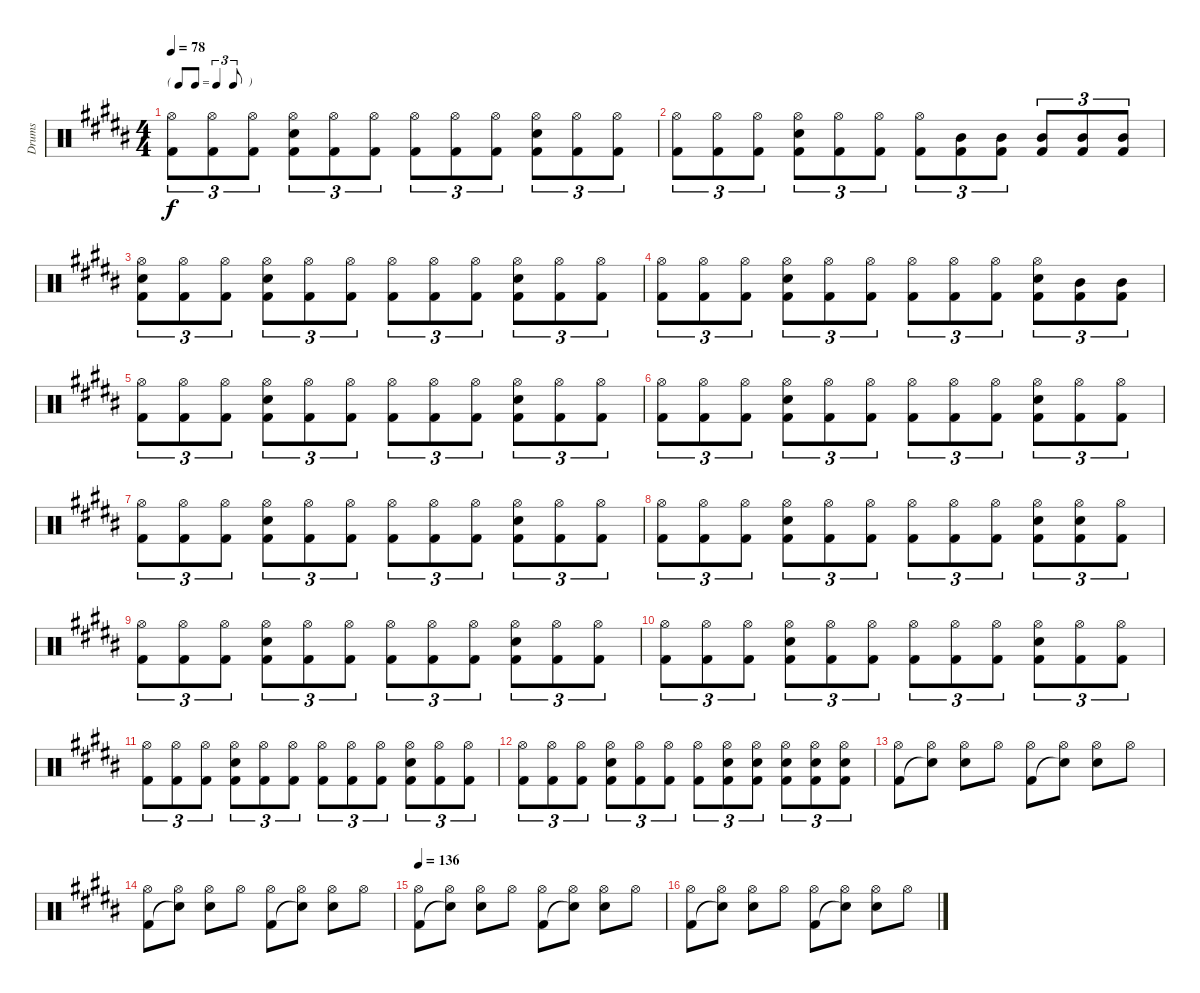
\track ("Drums" "Drums") {instrument percussion}
\staff {score}
\articulation defaults
\ts (4 4)
\tf triplet8th
\tempo 78
\clef neutral
\ks b
("Hi-Hat (open)" "Kick (hit) 2").8{tu (3 2) dy f} ("Hi-Hat (open)" "Kick (hit) 2").8{tu (3 2)} ("Hi-Hat (open)" "Kick (hit) 2").8{tu (3 2)} ("Hi-Hat (open)" "Snare (hit) 2" "Kick (hit) 2").8{tu (3 2)} ("Hi-Hat (open)" "Kick (hit) 2").8{tu (3 2)} ("Hi-Hat (open)" "Kick (hit) 2").8{tu (3 2)} ("Hi-Hat (open)" "Kick (hit) 2").8{tu (3 2)} ("Hi-Hat (open)" "Kick (hit) 2").8{tu (3 2)} ("Hi-Hat (open)" "Kick (hit) 2").8{tu (3 2)} ("Hi-Hat (open)" "Snare (hit) 2" "Kick (hit) 2").8{tu (3 2)} ("Hi-Hat (open)" "Kick (hit) 2").8{tu (3 2)} ("Hi-Hat (open)" "Kick (hit) 2").8{tu (3 2)} |
("Hi-Hat (open)" "Kick (hit) 2").8{tu (3 2)} ("Hi-Hat (open)" "Kick (hit) 2").8{tu (3 2)} ("Hi-Hat (open)" "Kick (hit) 2").8{tu (3 2)} ("Hi-Hat (open)" "Snare (hit) 2" "Kick (hit) 2").8{tu (3 2)} ("Hi-Hat (open)" "Kick (hit) 2").8{tu (3 2)} ("Hi-Hat (open)" "Kick (hit) 2").8{tu (3 2)} ("Hi-Hat (open)" "Kick (hit) 2").8{tu (3 2)} ("Mid Tom (hit)" "Kick (hit) 2").8{tu (3 2)} ("Mid Tom (hit)" "Kick (hit) 2").8{tu (3 2)} ("Mid Tom (hit)" "Kick (hit) 2").8{tu (3 2)} ("Mid Tom (hit)" "Kick (hit) 2").8{tu (3 2)} ("Mid Tom (hit)" "Kick (hit) 2").8{tu (3 2)} |
("Hi-Hat (open)" "Snare (hit) 2" "Kick (hit) 2").8{tu (3 2)} ("Hi-Hat (open)" "Kick (hit) 2").8{tu (3 2)} ("Hi-Hat (open)" "Kick (hit) 2").8{tu (3 2)} ("Hi-Hat (open)" "Snare (hit) 2" "Kick (hit) 2").8{tu (3 2)} ("Hi-Hat (open)" "Kick (hit) 2").8{tu (3 2)} ("Hi-Hat (open)" "Kick (hit) 2").8{tu (3 2)} ("Hi-Hat (open)" "Kick (hit) 2").8{tu (3 2)} ("Hi-Hat (open)" "Kick (hit) 2").8{tu (3 2)} ("Hi-Hat (open)" "Kick (hit) 2").8{tu (3 2)} ("Hi-Hat (open)" "Snare (hit) 2" "Kick (hit) 2").8{tu (3 2)} ("Hi-Hat (open)" "Kick (hit) 2").8{tu (3 2)} ("Hi-Hat (open)" "Kick (hit) 2").8{tu (3 2)} |
("Hi-Hat (open)" "Kick (hit) 2").8{tu (3 2)} ("Hi-Hat (open)" "Kick (hit) 2").8{tu (3 2)} ("Hi-Hat (open)" "Kick (hit) 2").8{tu (3 2)} ("Hi-Hat (open)" "Snare (hit) 2" "Kick (hit) 2").8{tu (3 2)} ("Hi-Hat (open)" "Kick (hit) 2").8{tu (3 2)} ("Hi-Hat (open)" "Kick (hit) 2").8{tu (3 2)} ("Hi-Hat (open)" "Kick (hit) 2").8{tu (3 2)} ("Hi-Hat (open)" "Kick (hit) 2").8{tu (3 2)} ("Hi-Hat (open)" "Kick (hit) 2").8{tu (3 2)} ("Hi-Hat (open)" "Snare (hit) 2" "Kick (hit) 2").8{tu (3 2)} ("Mid Tom (hit)" "Kick (hit) 2").8{tu (3 2)} ("Mid Tom (hit)" "Kick (hit) 2").8{tu (3 2)} |
("Hi-Hat (open)" "Kick (hit) 2").8{tu (3 2)} ("Hi-Hat (open)" "Kick (hit) 2").8{tu (3 2)} ("Hi-Hat (open)" "Kick (hit) 2").8{tu (3 2)} ("Hi-Hat (open)" "Snare (hit) 2" "Kick (hit) 2").8{tu (3 2)} ("Hi-Hat (open)" "Kick (hit) 2").8{tu (3 2)} ("Hi-Hat (open)" "Kick (hit) 2").8{tu (3 2)} ("Hi-Hat (open)" "Kick (hit) 2").8{tu (3 2)} ("Hi-Hat (open)" "Kick (hit) 2").8{tu (3 2)} ("Hi-Hat (open)" "Kick (hit) 2").8{tu (3 2)} ("Hi-Hat (open)" "Snare (hit) 2" "Kick (hit) 2").8{tu (3 2)} ("Hi-Hat (open)" "Kick (hit) 2").8{tu (3 2)} ("Hi-Hat (open)" "Kick (hit) 2").8{tu (3 2)} |
("Hi-Hat (open)" "Kick (hit) 2").8{tu (3 2)} ("Hi-Hat (open)" "Kick (hit) 2").8{tu (3 2)} ("Hi-Hat (open)" "Kick (hit) 2").8{tu (3 2)} ("Hi-Hat (open)" "Snare (hit) 2" "Kick (hit) 2").8{tu (3 2)} ("Hi-Hat (open)" "Kick (hit) 2").8{tu (3 2)} ("Hi-Hat (open)" "Kick (hit) 2").8{tu (3 2)} ("Hi-Hat (open)" "Kick (hit) 2").8{tu (3 2)} ("Hi-Hat (open)" "Kick (hit) 2").8{tu (3 2)} ("Hi-Hat (open)" "Kick (hit) 2").8{tu (3 2)} ("Hi-Hat (open)" "Snare (hit) 2" "Kick (hit) 2").8{tu (3 2)} ("Hi-Hat (open)" "Kick (hit) 2").8{tu (3 2)} ("Hi-Hat (open)" "Kick (hit) 2").8{tu (3 2)} |
("Hi-Hat (open)" "Kick (hit) 2").8{tu (3 2)} ("Hi-Hat (open)" "Kick (hit) 2").8{tu (3 2)} ("Hi-Hat (open)" "Kick (hit) 2").8{tu (3 2)} ("Hi-Hat (open)" "Snare (hit) 2" "Kick (hit) 2").8{tu (3 2)} ("Hi-Hat (open)" "Kick (hit) 2").8{tu (3 2)} ("Hi-Hat (open)" "Kick (hit) 2").8{tu (3 2)} ("Hi-Hat (open)" "Kick (hit) 2").8{tu (3 2)} ("Hi-Hat (open)" "Kick (hit) 2").8{tu (3 2)} ("Hi-Hat (open)" "Kick (hit) 2").8{tu (3 2)} ("Hi-Hat (open)" "Snare (hit) 2" "Kick (hit) 2").8{tu (3 2)} ("Hi-Hat (open)" "Kick (hit) 2").8{tu (3 2)} ("Hi-Hat (open)" "Kick (hit) 2").8{tu (3 2)} |
("Hi-Hat (open)" "Kick (hit) 2").8{tu (3 2)} ("Hi-Hat (open)" "Kick (hit) 2").8{tu (3 2)} ("Hi-Hat (open)" "Kick (hit) 2").8{tu (3 2)} ("Hi-Hat (open)" "Snare (hit) 2" "Kick (hit) 2").8{tu (3 2)} ("Hi-Hat (open)" "Kick (hit) 2").8{tu (3 2)} ("Hi-Hat (open)" "Kick (hit) 2").8{tu (3 2)} ("Hi-Hat (open)" "Kick (hit) 2").8{tu (3 2)} ("Hi-Hat (open)" "Kick (hit) 2").8{tu (3 2)} ("Hi-Hat (open)" "Kick (hit) 2").8{tu (3 2)} ("Hi-Hat (open)" "Snare (hit) 2" "Kick (hit) 2").8{tu (3 2)} ("Hi-Hat (open)" "Snare (hit) 2" "Kick (hit) 2").8{tu (3 2)} ("Hi-Hat (open)" "Kick (hit) 2").8{tu (3 2)} |
("Hi-Hat (open)" "Kick (hit) 2").8{tu (3 2)} ("Hi-Hat (open)" "Kick (hit) 2").8{tu (3 2)} ("Hi-Hat (open)" "Kick (hit) 2").8{tu (3 2)} ("Hi-Hat (open)" "Snare (hit) 2" "Kick (hit) 2").8{tu (3 2)} ("Hi-Hat (open)" "Kick (hit) 2").8{tu (3 2)} ("Hi-Hat (open)" "Kick (hit) 2").8{tu (3 2)} ("Hi-Hat (open)" "Kick (hit) 2").8{tu (3 2)} ("Hi-Hat (open)" "Kick (hit) 2").8{tu (3 2)} ("Hi-Hat (open)" "Kick (hit) 2").8{tu (3 2)} ("Hi-Hat (open)" "Snare (hit) 2" "Kick (hit) 2").8{tu (3 2)} ("Hi-Hat (open)" "Kick (hit) 2").8{tu (3 2)} ("Hi-Hat (open)" "Kick (hit) 2").8{tu (3 2)} |
("Hi-Hat (open)" "Kick (hit) 2").8{tu (3 2)} ("Hi-Hat (open)" "Kick (hit) 2").8{tu (3 2)} ("Hi-Hat (open)" "Kick (hit) 2").8{tu (3 2)} ("Hi-Hat (open)" "Snare (hit) 2" "Kick (hit) 2").8{tu (3 2)} ("Hi-Hat (open)" "Kick (hit) 2").8{tu (3 2)} ("Hi-Hat (open)" "Kick (hit) 2").8{tu (3 2)} ("Hi-Hat (open)" "Kick (hit) 2").8{tu (3 2)} ("Hi-Hat (open)" "Kick (hit) 2").8{tu (3 2)} ("Hi-Hat (open)" "Kick (hit) 2").8{tu (3 2)} ("Hi-Hat (open)" "Snare (hit) 2" "Kick (hit) 2").8{tu (3 2)} ("Hi-Hat (open)" "Kick (hit) 2").8{tu (3 2)} ("Hi-Hat (open)" "Kick (hit) 2").8{tu (3 2)} |
("Hi-Hat (open)" "Kick (hit) 2").8{tu (3 2)} ("Hi-Hat (open)" "Kick (hit) 2").8{tu (3 2)} ("Hi-Hat (open)" "Kick (hit) 2").8{tu (3 2)} ("Hi-Hat (open)" "Snare (hit) 2" "Kick (hit) 2").8{tu (3 2)} ("Hi-Hat (open)" "Kick (hit) 2").8{tu (3 2)} ("Hi-Hat (open)" "Kick (hit) 2").8{tu (3 2)} ("Hi-Hat (open)" "Kick (hit) 2").8{tu (3 2)} ("Hi-Hat (open)" "Kick (hit) 2").8{tu (3 2)} ("Hi-Hat (open)" "Kick (hit) 2").8{tu (3 2)} ("Hi-Hat (open)" "Snare (hit) 2" "Kick (hit) 2").8{tu (3 2)} ("Hi-Hat (open)" "Kick (hit) 2").8{tu (3 2)} ("Hi-Hat (open)" "Kick (hit) 2").8{tu (3 2)} |
("Hi-Hat (open)" "Kick (hit) 2").8{tu (3 2)} ("Hi-Hat (open)" "Kick (hit) 2").8{tu (3 2)} ("Hi-Hat (open)" "Kick (hit) 2").8{tu (3 2)} ("Hi-Hat (open)" "Snare (hit) 2" "Kick (hit) 2").8{tu (3 2)} ("Hi-Hat (open)" "Kick (hit) 2").8{tu (3 2)} ("Hi-Hat (open)" "Kick (hit) 2").8{tu (3 2)} ("Hi-Hat (open)" "Kick (hit) 2").8{tu (3 2)} ("Hi-Hat (open)" "Snare (hit) 2" "Kick (hit) 2").8{tu (3 2)} ("Hi-Hat (open)" "Snare (hit) 2" "Kick (hit) 2").8{tu (3 2)} ("Hi-Hat (open)" "Snare (hit) 2" "Kick (hit) 2").8{tu (3 2)} ("Hi-Hat (open)" "Snare (hit) 2" "Kick (hit) 2").8{tu (3 2)} ("Hi-Hat (open)" "Snare (hit) 2" "Kick (hit) 2").8{tu (3 2)} |
("Hi-Hat (open)" "Kick (hit) 2").8 ("Hi-Hat (open)" "Snare (hit)"{t}).8 ("Hi-Hat (open)" "Snare (hit) 2").8 "Hi-Hat (open)".8 ("Hi-Hat (open)" "Kick (hit) 2").8 ("Hi-Hat (open)" "Snare (hit)"{t}).8 ("Hi-Hat (open)" "Snare (hit) 2").8 "Hi-Hat (open)".8 |
("Hi-Hat (open)" "Kick (hit) 2").8 ("Hi-Hat (open)" "Snare (hit)"{t}).8 ("Hi-Hat (open)" "Snare (hit) 2").8 "Hi-Hat (open)".8 ("Hi-Hat (open)" "Kick (hit) 2").8 ("Hi-Hat (open)" "Snare (hit)"{t}).8 ("Hi-Hat (open)" "Snare (hit) 2").8 "Hi-Hat (open)".8 |
\tempo 136
("Hi-Hat (open)" "Kick (hit) 2").8 ("Hi-Hat (open)" "Snare (hit)"{t}).8 ("Hi-Hat (open)" "Snare (hit) 2").8 "Hi-Hat (open)".8 ("Hi-Hat (open)" "Kick (hit) 2").8 ("Hi-Hat (open)" "Snare (hit)"{t}).8 ("Hi-Hat (open)" "Snare (hit) 2").8 "Hi-Hat (open)".8 |
("Hi-Hat (open)" "Kick (hit) 2").8 ("Hi-Hat (open)" "Snare (hit)"{t}).8 ("Hi-Hat (open)" "Snare (hit) 2").8 "Hi-Hat (open)".8 ("Hi-Hat (open)" "Kick (hit) 2").8 ("Hi-Hat (open)" "Snare (hit)"{t}).8 ("Hi-Hat (open)" "Snare (hit) 2").8 "Hi-Hat (open)".8
